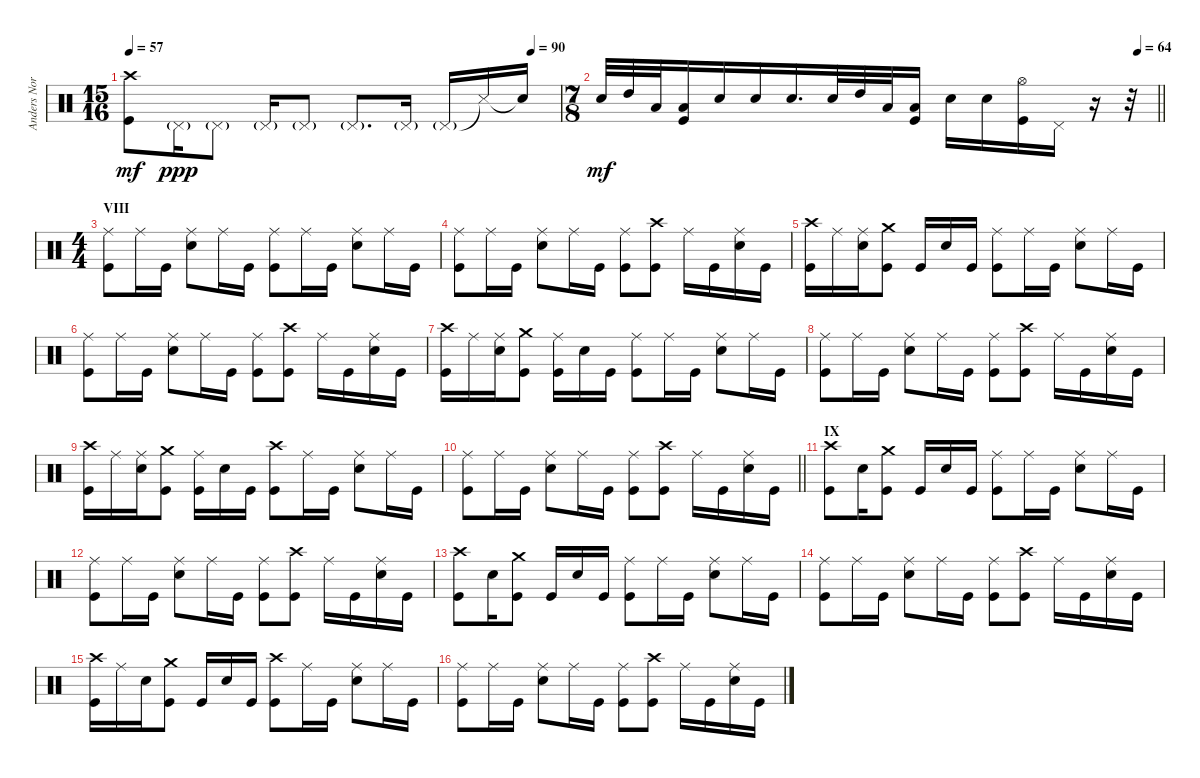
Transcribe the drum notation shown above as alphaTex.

\track ("Anders Nordin - Drums" "Anders Nor") {instrument percussion}
\staff {score}
\articulation defaults
\ts (15 16)
\tempo 57
\tempo (90 0.9333333333333333)
\clef neutral
\ks c
("Crash high (hit)" "Kick (hit)").8{dy mf} "Pedal Hi-Hat (hit)"{g}.16{dy ppp} "Pedal Hi-Hat (hit)"{g}.8 "Pedal Hi-Hat (hit)"{g}.16 "Pedal Hi-Hat (hit)"{g}.8 "Pedal Hi-Hat (hit)"{g}.8{d} "Pedal Hi-Hat (hit)"{g}.16 "Pedal Hi-Hat (hit)"{g}.16 "Snare (side stick) 3"{t}.16 "Snare (hit)"{t}.16 |
\ts (7 8)
\tempo (64 0.9642857142857143)
\barLineRight lightlight "Snare (hit) 2".32{dy mf} "High Tom (hit)".32 "Low Tom (hit)".32
("Low Floor Tom (hit)" "Kick (hit)").16 "Snare (hit) 2".16 "Snare (hit) 2".16 "Snare (hit) 2".16{d} "Snare (hit) 2".32 "High Tom (hit)".32 "Low Tom (hit)".32 ("Low Floor Tom (hit)" "Kick (hit)").16 "Snare (hit) 2".16 "Snare (hit) 2".16 ("Kick (hit)" "Hi-Hat (open)").16 "Pedal Hi-Hat (hit)".16 r.16 r.32 |
\ts (4 4)
\section ("" "VIII")
("Ride (middle)" "Kick (hit)").8 "Ride (middle)".16 "Kick (hit)".16 ("Ride (middle)" "Snare (hit) 2").8 "Ride (middle)".16 "Kick (hit)".16 ("Ride (middle)" "Kick (hit)").8 "Ride (middle)".16 "Kick (hit)".16 ("Ride (middle)" "Snare (hit) 2").8 "Ride (middle)".16 "Kick (hit)".16 |
("Ride (middle)" "Kick (hit)").8 "Ride (middle)".16 "Kick (hit)".16 ("Ride (middle)" "Snare (hit) 2").8 "Ride (middle)".16 "Kick (hit)".16 ("Ride (middle)" "Kick (hit)").8 ("Crash high (hit)" "Kick (hit)").8 "Ride (middle)".16 "Kick (hit)".16 ("Snare (hit) 2" "Ride (middle)").16 "Kick (hit)".16 |
("Crash high (hit)" "Kick (hit)").16 "Ride (middle)".16 ("Ride (middle)" "Snare (hit) 2").16 ("Kick (hit)" "Crash medium (hit)").8 "Kick (hit)".16 "Snare (hit) 2".16 "Kick (hit)".16 ("Kick (hit)" "Ride (middle)").8 "Ride (middle)".16 "Kick (hit)".16 ("Snare (hit) 2" "Ride (middle)").8 "Ride (middle)".16 "Kick (hit)".16 |
("Ride (middle)" "Kick (hit)").8 "Ride (middle)".16 "Kick (hit)".16 ("Ride (middle)" "Snare (hit) 2").8 "Ride (middle)".16 "Kick (hit)".16 ("Ride (middle)" "Kick (hit)").8 ("Crash high (hit)" "Kick (hit)").8 "Ride (middle)".16 "Kick (hit)".16 ("Snare (hit) 2" "Ride (middle)").16 "Kick (hit)".16 |
("Crash high (hit)" "Kick (hit)").16 "Ride (middle)".16 ("Ride (middle)" "Snare (hit) 2").16 ("Kick (hit)" "Crash medium (hit)").8 ("Kick (hit)" "Ride (middle)").16 "Snare (hit) 2".16 "Kick (hit)".16 ("Kick (hit)" "Ride (middle)").8 "Ride (middle)".16 "Kick (hit)".16 ("Snare (hit) 2" "Ride (middle)").8 "Ride (middle)".16 "Kick (hit)".16 |
("Ride (middle)" "Kick (hit)").8 "Ride (middle)".16 "Kick (hit)".16 ("Ride (middle)" "Snare (hit) 2").8 "Ride (middle)".16 "Kick (hit)".16 ("Ride (middle)" "Kick (hit)").8 ("Crash high (hit)" "Kick (hit)").8 "Ride (middle)".16 "Kick (hit)".16 ("Snare (hit) 2" "Ride (middle)").16 "Kick (hit)".16 |
("Crash high (hit)" "Kick (hit)").16 "Ride (middle)".16 ("Ride (middle)" "Snare (hit) 2").16 ("Kick (hit)" "Crash medium (hit)").8 ("Kick (hit)" "Ride (middle)").16 "Snare (hit) 2".16 "Kick (hit)".16 ("Kick (hit)" "Crash high (hit)").8 "Ride (middle)".16 "Kick (hit)".16 ("Snare (hit) 2" "Ride (middle)").8 "Ride (middle)".16 "Kick (hit)".16 |
\barLineRight lightlight
("Ride (middle)" "Kick (hit)").8 "Ride (middle)".16 "Kick (hit)".16 ("Ride (middle)" "Snare (hit) 2").8 "Ride (middle)".16 "Kick (hit)".16 ("Ride (middle)" "Kick (hit)").8 ("Crash high (hit)" "Kick (hit)").8 "Ride (middle)".16 "Kick (hit)".16 ("Snare (hit) 2" "Ride (middle)").16 "Kick (hit)".16 |
\section ("" "IX")
("Crash high (hit)" "Kick (hit)").8 "Snare (hit) 2".16 ("Kick (hit)" "Crash medium (hit)").8 "Kick (hit)".16 "Snare (hit) 2".16 "Kick (hit)".16 ("Ride (middle)" "Kick (hit)").8 "Ride (middle)".16 "Kick (hit)".16 ("Snare (hit) 2" "Ride (middle)").8 "Ride (middle)".16 "Kick (hit)".16 |
("Ride (middle)" "Kick (hit)").8 "Ride (middle)".16 "Kick (hit)".16 ("Ride (middle)" "Snare (hit) 2").8 "Ride (middle)".16 "Kick (hit)".16 ("Ride (middle)" "Kick (hit)").8 ("Crash high (hit)" "Kick (hit)").8 "Ride (middle)".16 "Kick (hit)".16 ("Snare (hit) 2" "Ride (middle)").16 "Kick (hit)".16 |
("Crash high (hit)" "Kick (hit)").8 "Snare (hit) 2".16 ("Kick (hit)" "Crash medium (hit)").8 "Kick (hit)".16 "Snare (hit) 2".16 "Kick (hit)".16 ("Ride (middle)" "Kick (hit)").8 "Ride (middle)".16 "Kick (hit)".16 ("Snare (hit) 2" "Ride (middle)").8 "Ride (middle)".16 "Kick (hit)".16 |
("Ride (middle)" "Kick (hit)").8 "Ride (middle)".16 "Kick (hit)".16 ("Ride (middle)" "Snare (hit) 2").8 "Ride (middle)".16 "Kick (hit)".16 ("Ride (middle)" "Kick (hit)").8 ("Crash high (hit)" "Kick (hit)").8 "Ride (middle)".16 "Kick (hit)".16 ("Snare (hit) 2" "Ride (middle)").16 "Kick (hit)".16 |
("Crash high (hit)" "Kick (hit)").16 "Ride (middle)".16 "Snare (hit) 2".16 ("Kick (hit)" "Crash medium (hit)").8 "Kick (hit)".16 "Snare (hit) 2".16 "Kick (hit)".16 ("Kick (hit)" "Crash high (hit)").8 "Ride (middle)".16 "Kick (hit)".16 ("Snare (hit) 2" "Ride (middle)").8 "Ride (middle)".16 "Kick (hit)".16 |
("Ride (middle)" "Kick (hit)").8 "Ride (middle)".16 "Kick (hit)".16 ("Ride (middle)" "Snare (hit) 2").8 "Ride (middle)".16 "Kick (hit)".16 ("Ride (middle)" "Kick (hit)").8 ("Crash high (hit)" "Kick (hit)").8 "Ride (middle)".16 "Kick (hit)".16 ("Snare (hit) 2" "Ride (middle)").16 "Kick (hit)".16
